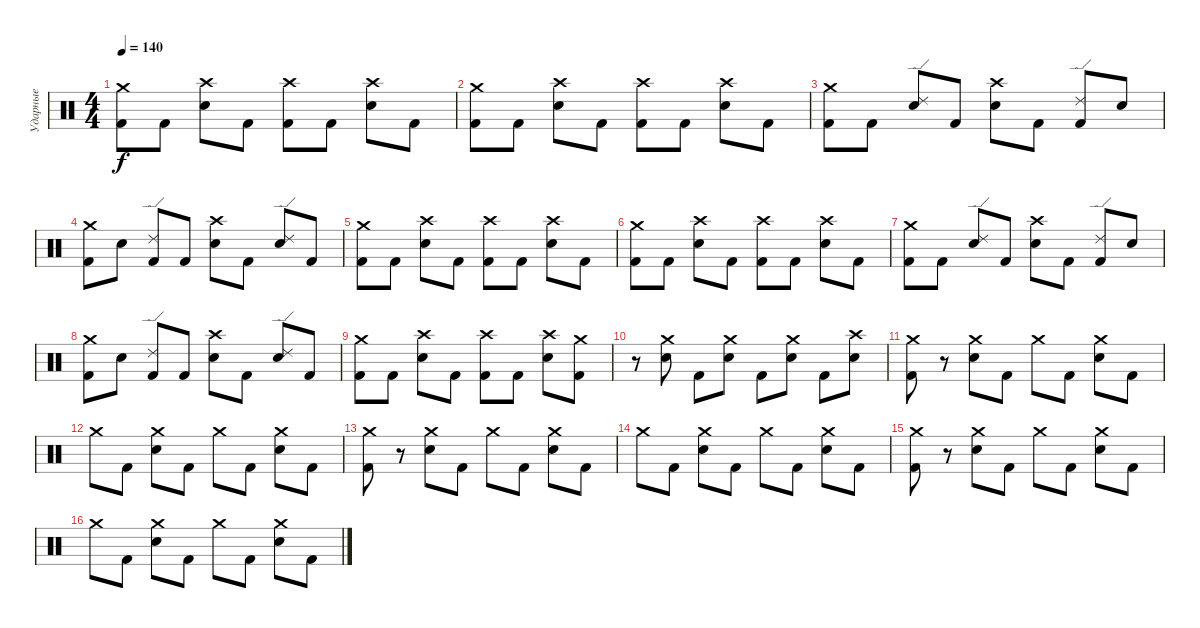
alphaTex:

\track ("Ударные" "Ударные") {instrument percussion}
\staff {score}
\articulation defaults
\ts (4 4)
\tempo 140
\clef neutral
\ks c
("Crash medium (hit)" "Kick (hit) 2").8{dy f} "Kick (hit) 2".8 ("Crash high (hit)" "Electric Snare (hit)").8 "Kick (hit) 2".8 ("Crash high (hit)" "Kick (hit) 2").8 "Kick (hit) 2".8 ("Crash high (hit)" "Electric Snare (hit)").8 "Kick (hit) 2".8 |
("Crash medium (hit)" "Kick (hit) 2").8 "Kick (hit) 2".8 ("Crash high (hit)" "Electric Snare (hit)").8 "Kick (hit) 2".8 ("Crash high (hit)" "Kick (hit) 2").8 "Kick (hit) 2".8 ("Crash high (hit)" "Electric Snare (hit)").8 "Kick (hit) 2".8 |
("Crash medium (hit)" "Kick (hit) 2").8 "Kick (hit) 2".8 ("Ride (edge) 2" "Electric Snare (hit)").8 "Kick (hit) 2".8 ("Crash high (hit)" "Electric Snare (hit)").8 "Kick (hit) 2".8 ("Ride (edge) 2" "Kick (hit) 2").8 "Electric Snare (hit)".8 |
("Crash medium (hit)" "Kick (hit) 2").8 "Electric Snare (hit)".8 ("Ride (edge) 2" "Kick (hit) 2").8 "Kick (hit) 2".8 ("Crash high (hit)" "Electric Snare (hit)").8 "Kick (hit) 2".8 ("Ride (edge) 2" "Electric Snare (hit)").8 "Kick (hit) 2".8 |
("Crash medium (hit)" "Kick (hit) 2").8 "Kick (hit) 2".8 ("Crash high (hit)" "Electric Snare (hit)").8 "Kick (hit) 2".8 ("Crash high (hit)" "Kick (hit) 2").8 "Kick (hit) 2".8 ("Crash high (hit)" "Electric Snare (hit)").8 "Kick (hit) 2".8 |
("Crash medium (hit)" "Kick (hit) 2").8 "Kick (hit) 2".8 ("Crash high (hit)" "Electric Snare (hit)").8 "Kick (hit) 2".8 ("Crash high (hit)" "Kick (hit) 2").8 "Kick (hit) 2".8 ("Crash high (hit)" "Electric Snare (hit)").8 "Kick (hit) 2".8 |
("Crash medium (hit)" "Kick (hit) 2").8 "Kick (hit) 2".8 ("Ride (edge) 2" "Electric Snare (hit)").8 "Kick (hit) 2".8 ("Crash high (hit)" "Electric Snare (hit)").8 "Kick (hit) 2".8 ("Ride (edge) 2" "Kick (hit) 2").8 "Electric Snare (hit)".8 |
("Crash medium (hit)" "Kick (hit) 2").8 "Electric Snare (hit)".8 ("Ride (edge) 2" "Kick (hit) 2").8 "Kick (hit) 2".8 ("Crash high (hit)" "Electric Snare (hit)").8 "Kick (hit) 2".8 ("Ride (edge) 2" "Electric Snare (hit)").8 "Kick (hit) 2".8 |
("Crash medium (hit)" "Kick (hit) 2").8 "Kick (hit) 2".8 ("Crash high (hit)" "Electric Snare (hit)").8 "Kick (hit) 2".8 ("Crash high (hit)" "Kick (hit) 2").8 "Kick (hit) 2".8 ("Crash high (hit)" "Electric Snare (hit)").8 ("Crash medium (hit)" "Kick (hit) 2").8 |
r.8 ("Crash medium (hit)" "Electric Snare (hit)").8 "Kick (hit) 2".8 ("Crash medium (hit)" "Electric Snare (hit)").8 "Kick (hit) 2".8 ("Crash medium (hit)" "Electric Snare (hit)").8 "Kick (hit) 2".8 ("Crash high (hit)" "Electric Snare (hit)").8 |
("Crash medium (hit)" "Kick (hit) 2").8 r.8 ("Crash medium (hit)" "Electric Snare (hit)").8 "Kick (hit) 2".8 "Crash medium (hit)".8 "Kick (hit) 2".8 ("Crash medium (hit)" "Electric Snare (hit)").8 "Kick (hit) 2".8 |
"Crash medium (hit)".8 "Kick (hit) 2".8 ("Crash medium (hit)" "Electric Snare (hit)").8 "Kick (hit) 2".8 "Crash medium (hit)".8 "Kick (hit) 2".8 ("Crash medium (hit)" "Electric Snare (hit)").8 "Kick (hit) 2".8 |
("Crash medium (hit)" "Kick (hit) 2").8 r.8 ("Crash medium (hit)" "Electric Snare (hit)").8 "Kick (hit) 2".8 "Crash medium (hit)".8 "Kick (hit) 2".8 ("Crash medium (hit)" "Electric Snare (hit)").8 "Kick (hit) 2".8 |
"Crash medium (hit)".8 "Kick (hit) 2".8 ("Crash medium (hit)" "Electric Snare (hit)").8 "Kick (hit) 2".8 "Crash medium (hit)".8 "Kick (hit) 2".8 ("Crash medium (hit)" "Electric Snare (hit)").8 "Kick (hit) 2".8 |
("Crash medium (hit)" "Kick (hit) 2").8 r.8 ("Crash medium (hit)" "Electric Snare (hit)").8 "Kick (hit) 2".8 "Crash medium (hit)".8 "Kick (hit) 2".8 ("Crash medium (hit)" "Electric Snare (hit)").8 "Kick (hit) 2".8 |
"Crash medium (hit)".8 "Kick (hit) 2".8 ("Crash medium (hit)" "Electric Snare (hit)").8 "Kick (hit) 2".8 "Crash medium (hit)".8 "Kick (hit) 2".8 ("Crash medium (hit)" "Electric Snare (hit)").8 "Kick (hit) 2".8
